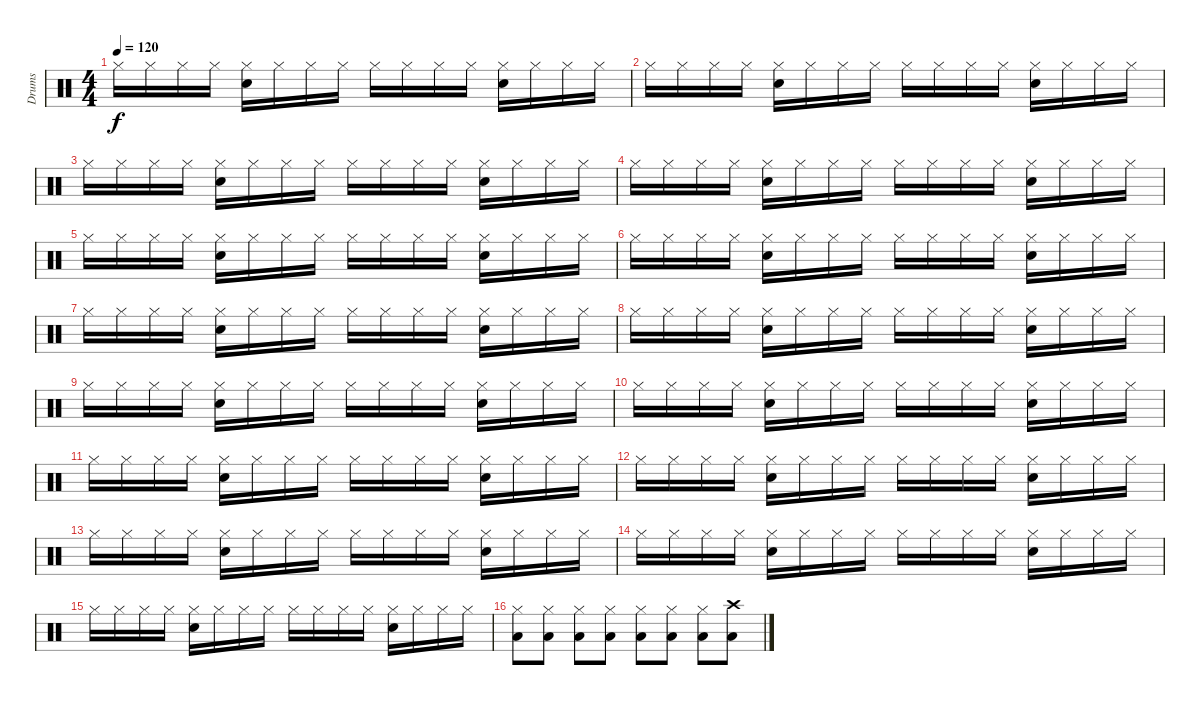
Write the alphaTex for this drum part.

\track ("Drums" "Drums") {instrument percussion}
\staff {score}
\articulation defaults
\ts (4 4)
\tempo 120
\clef neutral
\ks c "Hi-Hat (closed)".16{dy f} "Hi-Hat (closed)".16 "Hi-Hat (closed)".16 "Hi-Hat (closed)".16
("Hi-Hat (closed)" "Electric Snare (hit)").16 "Hi-Hat (closed)".16 "Hi-Hat (closed)".16 "Hi-Hat (closed)".16 "Hi-Hat (closed)".16 "Hi-Hat (closed)".16 "Hi-Hat (closed)".16 "Hi-Hat (closed)".16 ("Hi-Hat (closed)" "Electric Snare (hit)").16 "Hi-Hat (closed)".16 "Hi-Hat (closed)".16 "Hi-Hat (closed)".16 |
"Hi-Hat (closed)".16 "Hi-Hat (closed)".16 "Hi-Hat (closed)".16 "Hi-Hat (closed)".16 ("Hi-Hat (closed)" "Electric Snare (hit)").16 "Hi-Hat (closed)".16 "Hi-Hat (closed)".16 "Hi-Hat (closed)".16 "Hi-Hat (closed)".16 "Hi-Hat (closed)".16 "Hi-Hat (closed)".16 "Hi-Hat (closed)".16 ("Hi-Hat (closed)" "Electric Snare (hit)").16 "Hi-Hat (closed)".16 "Hi-Hat (closed)".16 "Hi-Hat (closed)".16 |
"Hi-Hat (closed)".16 "Hi-Hat (closed)".16 "Hi-Hat (closed)".16 "Hi-Hat (closed)".16 ("Hi-Hat (closed)" "Electric Snare (hit)").16 "Hi-Hat (closed)".16 "Hi-Hat (closed)".16 "Hi-Hat (closed)".16 "Hi-Hat (closed)".16 "Hi-Hat (closed)".16 "Hi-Hat (closed)".16 "Hi-Hat (closed)".16 ("Hi-Hat (closed)" "Electric Snare (hit)").16 "Hi-Hat (closed)".16 "Hi-Hat (closed)".16 "Hi-Hat (closed)".16 |
"Hi-Hat (closed)".16 "Hi-Hat (closed)".16 "Hi-Hat (closed)".16 "Hi-Hat (closed)".16 ("Hi-Hat (closed)" "Electric Snare (hit)").16 "Hi-Hat (closed)".16 "Hi-Hat (closed)".16 "Hi-Hat (closed)".16 "Hi-Hat (closed)".16 "Hi-Hat (closed)".16 "Hi-Hat (closed)".16 "Hi-Hat (closed)".16 ("Hi-Hat (closed)" "Electric Snare (hit)").16 "Hi-Hat (closed)".16 "Hi-Hat (closed)".16 "Hi-Hat (closed)".16 |
"Hi-Hat (closed)".16 "Hi-Hat (closed)".16 "Hi-Hat (closed)".16 "Hi-Hat (closed)".16 ("Hi-Hat (closed)" "Electric Snare (hit)").16 "Hi-Hat (closed)".16 "Hi-Hat (closed)".16 "Hi-Hat (closed)".16 "Hi-Hat (closed)".16 "Hi-Hat (closed)".16 "Hi-Hat (closed)".16 "Hi-Hat (closed)".16 ("Hi-Hat (closed)" "Electric Snare (hit)").16 "Hi-Hat (closed)".16 "Hi-Hat (closed)".16 "Hi-Hat (closed)".16 |
"Hi-Hat (closed)".16 "Hi-Hat (closed)".16 "Hi-Hat (closed)".16 "Hi-Hat (closed)".16 ("Hi-Hat (closed)" "Electric Snare (hit)").16 "Hi-Hat (closed)".16 "Hi-Hat (closed)".16 "Hi-Hat (closed)".16 "Hi-Hat (closed)".16 "Hi-Hat (closed)".16 "Hi-Hat (closed)".16 "Hi-Hat (closed)".16 ("Hi-Hat (closed)" "Electric Snare (hit)").16 "Hi-Hat (closed)".16 "Hi-Hat (closed)".16 "Hi-Hat (closed)".16 |
"Hi-Hat (closed)".16 "Hi-Hat (closed)".16 "Hi-Hat (closed)".16 "Hi-Hat (closed)".16 ("Hi-Hat (closed)" "Electric Snare (hit)").16 "Hi-Hat (closed)".16 "Hi-Hat (closed)".16 "Hi-Hat (closed)".16 "Hi-Hat (closed)".16 "Hi-Hat (closed)".16 "Hi-Hat (closed)".16 "Hi-Hat (closed)".16 ("Hi-Hat (closed)" "Electric Snare (hit)").16 "Hi-Hat (closed)".16 "Hi-Hat (closed)".16 "Hi-Hat (closed)".16 |
"Hi-Hat (closed)".16 "Hi-Hat (closed)".16 "Hi-Hat (closed)".16 "Hi-Hat (closed)".16 ("Hi-Hat (closed)" "Electric Snare (hit)").16 "Hi-Hat (closed)".16 "Hi-Hat (closed)".16 "Hi-Hat (closed)".16 "Hi-Hat (closed)".16 "Hi-Hat (closed)".16 "Hi-Hat (closed)".16 "Hi-Hat (closed)".16 ("Hi-Hat (closed)" "Electric Snare (hit)").16 "Hi-Hat (closed)".16 "Hi-Hat (closed)".16 "Hi-Hat (closed)".16 |
"Hi-Hat (closed)".16 "Hi-Hat (closed)".16 "Hi-Hat (closed)".16 "Hi-Hat (closed)".16 ("Hi-Hat (closed)" "Electric Snare (hit)").16 "Hi-Hat (closed)".16 "Hi-Hat (closed)".16 "Hi-Hat (closed)".16 "Hi-Hat (closed)".16 "Hi-Hat (closed)".16 "Hi-Hat (closed)".16 "Hi-Hat (closed)".16 ("Hi-Hat (closed)" "Electric Snare (hit)").16 "Hi-Hat (closed)".16 "Hi-Hat (closed)".16 "Hi-Hat (closed)".16 |
"Hi-Hat (closed)".16 "Hi-Hat (closed)".16 "Hi-Hat (closed)".16 "Hi-Hat (closed)".16 ("Hi-Hat (closed)" "Electric Snare (hit)").16 "Hi-Hat (closed)".16 "Hi-Hat (closed)".16 "Hi-Hat (closed)".16 "Hi-Hat (closed)".16 "Hi-Hat (closed)".16 "Hi-Hat (closed)".16 "Hi-Hat (closed)".16 ("Hi-Hat (closed)" "Electric Snare (hit)").16 "Hi-Hat (closed)".16 "Hi-Hat (closed)".16 "Hi-Hat (closed)".16 |
"Hi-Hat (closed)".16 "Hi-Hat (closed)".16 "Hi-Hat (closed)".16 "Hi-Hat (closed)".16 ("Hi-Hat (closed)" "Electric Snare (hit)").16 "Hi-Hat (closed)".16 "Hi-Hat (closed)".16 "Hi-Hat (closed)".16 "Hi-Hat (closed)".16 "Hi-Hat (closed)".16 "Hi-Hat (closed)".16 "Hi-Hat (closed)".16 ("Hi-Hat (closed)" "Electric Snare (hit)").16 "Hi-Hat (closed)".16 "Hi-Hat (closed)".16 "Hi-Hat (closed)".16 |
"Hi-Hat (closed)".16 "Hi-Hat (closed)".16 "Hi-Hat (closed)".16 "Hi-Hat (closed)".16 ("Hi-Hat (closed)" "Electric Snare (hit)").16 "Hi-Hat (closed)".16 "Hi-Hat (closed)".16 "Hi-Hat (closed)".16 "Hi-Hat (closed)".16 "Hi-Hat (closed)".16 "Hi-Hat (closed)".16 "Hi-Hat (closed)".16 ("Hi-Hat (closed)" "Electric Snare (hit)").16 "Hi-Hat (closed)".16 "Hi-Hat (closed)".16 "Hi-Hat (closed)".16 |
"Hi-Hat (closed)".16 "Hi-Hat (closed)".16 "Hi-Hat (closed)".16 "Hi-Hat (closed)".16 ("Hi-Hat (closed)" "Electric Snare (hit)").16 "Hi-Hat (closed)".16 "Hi-Hat (closed)".16 "Hi-Hat (closed)".16 "Hi-Hat (closed)".16 "Hi-Hat (closed)".16 "Hi-Hat (closed)".16 "Hi-Hat (closed)".16 ("Hi-Hat (closed)" "Electric Snare (hit)").16 "Hi-Hat (closed)".16 "Hi-Hat (closed)".16 "Hi-Hat (closed)".16 |
"Hi-Hat (closed)".16 "Hi-Hat (closed)".16 "Hi-Hat (closed)".16 "Hi-Hat (closed)".16 ("Hi-Hat (closed)" "Electric Snare (hit)").16 "Hi-Hat (closed)".16 "Hi-Hat (closed)".16 "Hi-Hat (closed)".16 "Hi-Hat (closed)".16 "Hi-Hat (closed)".16 "Hi-Hat (closed)".16 "Hi-Hat (closed)".16 ("Hi-Hat (closed)" "Electric Snare (hit)").16 "Hi-Hat (closed)".16 "Hi-Hat (closed)".16 "Hi-Hat (closed)".16 |
"Hi-Hat (closed)".16 "Hi-Hat (closed)".16 "Hi-Hat (closed)".16 "Hi-Hat (closed)".16 ("Hi-Hat (closed)" "Electric Snare (hit)").16 "Hi-Hat (closed)".16 "Hi-Hat (closed)".16 "Hi-Hat (closed)".16 "Hi-Hat (closed)".16 "Hi-Hat (closed)".16 "Hi-Hat (closed)".16 "Hi-Hat (closed)".16 ("Hi-Hat (closed)" "Electric Snare (hit)").16 "Hi-Hat (closed)".16 "Hi-Hat (closed)".16 "Hi-Hat (closed)".16 |
("Low Floor Tom (hit)" "Hi-Hat (closed)").8 ("Low Floor Tom (hit)" "Hi-Hat (closed)").8 ("Low Floor Tom (hit)" "Hi-Hat (closed)").8 ("Low Floor Tom (hit)" "Hi-Hat (closed)").8 ("Low Floor Tom (hit)" "Hi-Hat (closed)").8 ("Low Floor Tom (hit)" "Hi-Hat (closed)").8 ("Low Floor Tom (hit)" "Hi-Hat (closed)").8 ("Low Floor Tom (hit)" "Crash high (hit)").8
